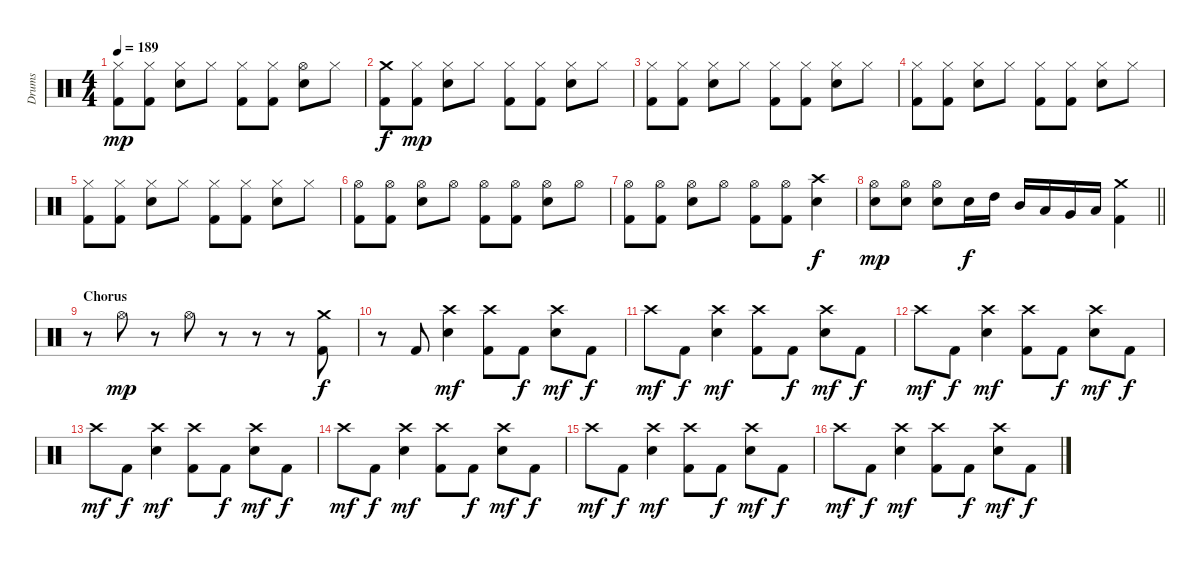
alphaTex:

\track ("Drums" "Drums") {instrument percussion}
\staff {score}
\articulation defaults
\ts (4 4)
\tempo 189
\clef neutral
\ks c
("Hi-Hat (closed)" "Kick (hit) 2").8{dy mp} ("Hi-Hat (closed)" "Kick (hit) 2").8 ("Hi-Hat (closed)" "Snare (hit) 2").8 "Hi-Hat (closed)".8 ("Hi-Hat (closed)" "Kick (hit) 2").8 ("Hi-Hat (closed)" "Kick (hit) 2").8 ("Hi-Hat (open)" "Snare (hit) 2").8 "Hi-Hat (closed)".8 |
("Crash medium (hit)" "Kick (hit) 2").8{dy f} ("Hi-Hat (closed)" "Kick (hit) 2").8{dy mp} ("Hi-Hat (closed)" "Snare (hit) 2").8 "Hi-Hat (closed)".8 ("Hi-Hat (closed)" "Kick (hit) 2").8 ("Hi-Hat (closed)" "Kick (hit) 2").8 ("Hi-Hat (closed)" "Snare (hit) 2").8 "Hi-Hat (closed)".8 |
("Hi-Hat (closed)" "Kick (hit) 2").8 ("Hi-Hat (closed)" "Kick (hit) 2").8 ("Hi-Hat (closed)" "Snare (hit) 2").8 "Hi-Hat (closed)".8 ("Hi-Hat (closed)" "Kick (hit) 2").8 ("Hi-Hat (closed)" "Kick (hit) 2").8 ("Hi-Hat (closed)" "Snare (hit) 2").8 "Hi-Hat (closed)".8 |
("Hi-Hat (closed)" "Kick (hit) 2").8 ("Hi-Hat (closed)" "Kick (hit) 2").8 ("Hi-Hat (closed)" "Snare (hit) 2").8 "Hi-Hat (closed)".8 ("Hi-Hat (closed)" "Kick (hit) 2").8 ("Hi-Hat (closed)" "Kick (hit) 2").8 ("Hi-Hat (closed)" "Snare (hit) 2").8 "Hi-Hat (closed)".8 |
("Hi-Hat (closed)" "Kick (hit) 2").8 ("Hi-Hat (closed)" "Kick (hit) 2").8 ("Hi-Hat (closed)" "Snare (hit) 2").8 "Hi-Hat (closed)".8 ("Hi-Hat (closed)" "Kick (hit) 2").8 ("Hi-Hat (closed)" "Kick (hit) 2").8 ("Hi-Hat (closed)" "Snare (hit) 2").8 "Hi-Hat (closed)".8 |
("Hi-Hat (open)" "Kick (hit) 2").8 ("Hi-Hat (open)" "Kick (hit) 2").8 ("Hi-Hat (open)" "Snare (hit) 2").8 "Hi-Hat (open)".8 ("Hi-Hat (open)" "Kick (hit) 2").8 ("Hi-Hat (open)" "Kick (hit) 2").8 ("Hi-Hat (open)" "Snare (hit) 2").8 "Hi-Hat (open)".8 |
("Hi-Hat (open)" "Kick (hit) 2").8 ("Hi-Hat (open)" "Kick (hit) 2").8 ("Hi-Hat (open)" "Snare (hit) 2").8 "Hi-Hat (open)".8 ("Hi-Hat (open)" "Kick (hit) 2").8 ("Hi-Hat (open)" "Kick (hit) 2").8 ("Crash high (hit)" "Snare (hit) 2").4{dy f} |
\barLineRight lightlight
("Hi-Hat (open)" "Snare (hit) 2").8{dy mp} ("Hi-Hat (open)" "Snare (hit) 2").8 ("Hi-Hat (open)" "Snare (hit) 2").8 "Snare (hit) 2".16{dy f} "High Tom (hit)".16 "Mid Tom (hit)".16 "Low Tom (hit)".16 "Very Low Tom (hit)".16 "Low Floor Tom (hit)".16 ("Crash medium (hit)" "Kick (hit) 2").4 |
\section ("" "Chorus")
r.8 "Hi-Hat (open)".8{dy mp} r.8 "Hi-Hat (open)".8 r.8 r.8 r.8 ("Crash medium (hit)" "Kick (hit) 2").8{dy f} |
r.8 "Kick (hit) 2".8 ("Crash high (hit)" "Snare (hit) 2").4{dy mf} ("Crash high (hit)" "Kick (hit) 2").8 "Kick (hit) 2".8{dy f} ("Crash high (hit)" "Snare (hit) 2").8{dy mf} "Kick (hit) 2".8{dy f} |
"Crash high (hit)".8{dy mf} "Kick (hit) 2".8{dy f} ("Crash high (hit)" "Snare (hit) 2").4{dy mf} ("Crash high (hit)" "Kick (hit) 2").8 "Kick (hit) 2".8{dy f} ("Crash high (hit)" "Snare (hit) 2").8{dy mf} "Kick (hit) 2".8{dy f} |
"Crash high (hit)".8{dy mf} "Kick (hit) 2".8{dy f} ("Crash high (hit)" "Snare (hit) 2").4{dy mf} ("Crash high (hit)" "Kick (hit) 2").8 "Kick (hit) 2".8{dy f} ("Crash high (hit)" "Snare (hit) 2").8{dy mf} "Kick (hit) 2".8{dy f} |
"Crash high (hit)".8{dy mf} "Kick (hit) 2".8{dy f} ("Crash high (hit)" "Snare (hit) 2").4{dy mf} ("Crash high (hit)" "Kick (hit) 2").8 "Kick (hit) 2".8{dy f} ("Crash high (hit)" "Snare (hit) 2").8{dy mf} "Kick (hit) 2".8{dy f} |
"Crash high (hit)".8{dy mf} "Kick (hit) 2".8{dy f} ("Crash high (hit)" "Snare (hit) 2").4{dy mf} ("Crash high (hit)" "Kick (hit) 2").8 "Kick (hit) 2".8{dy f} ("Crash high (hit)" "Snare (hit) 2").8{dy mf} "Kick (hit) 2".8{dy f} |
"Crash high (hit)".8{dy mf} "Kick (hit) 2".8{dy f} ("Crash high (hit)" "Snare (hit) 2").4{dy mf} ("Crash high (hit)" "Kick (hit) 2").8 "Kick (hit) 2".8{dy f} ("Crash high (hit)" "Snare (hit) 2").8{dy mf} "Kick (hit) 2".8{dy f} |
"Crash high (hit)".8{dy mf} "Kick (hit) 2".8{dy f} ("Crash high (hit)" "Snare (hit) 2").4{dy mf} ("Crash high (hit)" "Kick (hit) 2").8 "Kick (hit) 2".8{dy f} ("Crash high (hit)" "Snare (hit) 2").8{dy mf} "Kick (hit) 2".8{dy f}
